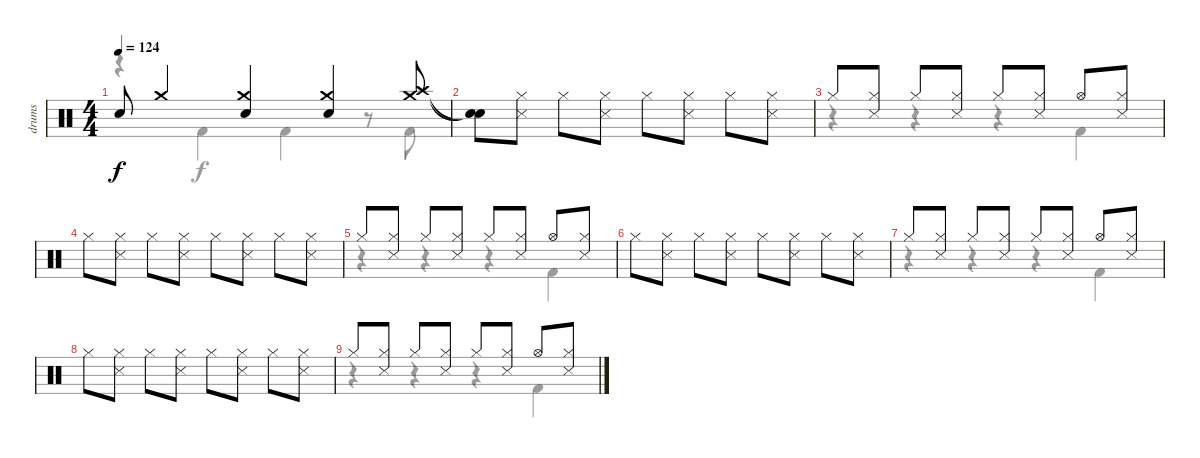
\track ("drums" "drums") {instrument percussion}
\staff {score}
\articulation defaults
\voice
\ts (4 4)
\tempo 124
\clef neutral
\ks c "Snare (hit)"{t}.8{dy f} "Crash medium (hit)".4
("Crash medium (hit)" "Snare (hit) 2").4 ("Crash medium (hit)" "Snare (hit) 2").4 ("Crash medium (hit)" "Crash high (hit)").8 |
("Snare (hit)"{t} "Snare (hit)"{t}).8 ("Hi-Hat (closed)" "Snare (side stick) 3").8 "Hi-Hat (closed)".8 ("Hi-Hat (closed)" "Snare (side stick) 3").8 "Hi-Hat (closed)".8 ("Hi-Hat (closed)" "Snare (side stick) 3").8 "Hi-Hat (closed)".8 ("Hi-Hat (closed)" "Snare (side stick) 3").8 |
"Hi-Hat (closed)".8 ("Hi-Hat (closed)" "Snare (side stick) 3").8 "Hi-Hat (closed)".8 ("Hi-Hat (closed)" "Snare (side stick) 3").8 "Hi-Hat (closed)".8 ("Hi-Hat (closed)" "Snare (side stick) 3").8 "Hi-Hat (open)".8 ("Hi-Hat (closed)" "Snare (side stick) 3").8 |
"Hi-Hat (closed)".8 ("Hi-Hat (closed)" "Snare (side stick) 3").8 "Hi-Hat (closed)".8 ("Hi-Hat (closed)" "Snare (side stick) 3").8 "Hi-Hat (closed)".8 ("Hi-Hat (closed)" "Snare (side stick) 3").8 "Hi-Hat (closed)".8 ("Hi-Hat (closed)" "Snare (side stick) 3").8 |
"Hi-Hat (closed)".8 ("Hi-Hat (closed)" "Snare (side stick) 3").8 "Hi-Hat (closed)".8 ("Hi-Hat (closed)" "Snare (side stick) 3").8 "Hi-Hat (closed)".8 ("Hi-Hat (closed)" "Snare (side stick) 3").8 "Hi-Hat (open)".8 ("Hi-Hat (closed)" "Snare (side stick) 3").8 |
"Hi-Hat (closed)".8 ("Hi-Hat (closed)" "Snare (side stick) 3").8 "Hi-Hat (closed)".8 ("Hi-Hat (closed)" "Snare (side stick) 3").8 "Hi-Hat (closed)".8 ("Hi-Hat (closed)" "Snare (side stick) 3").8 "Hi-Hat (closed)".8 ("Hi-Hat (closed)" "Snare (side stick) 3").8 |
"Hi-Hat (closed)".8{volume 3} ("Hi-Hat (closed)" "Snare (side stick) 3").8 "Hi-Hat (closed)".8 ("Hi-Hat (closed)" "Snare (side stick) 3").8 "Hi-Hat (closed)".8 ("Hi-Hat (closed)" "Snare (side stick) 3").8 "Hi-Hat (open)".8 ("Hi-Hat (closed)" "Snare (side stick) 3").8 |
"Hi-Hat (closed)".8 ("Hi-Hat (closed)" "Snare (side stick) 3").8 "Hi-Hat (closed)".8 ("Hi-Hat (closed)" "Snare (side stick) 3").8 "Hi-Hat (closed)".8 ("Hi-Hat (closed)" "Snare (side stick) 3").8 "Hi-Hat (closed)".8 ("Hi-Hat (closed)" "Snare (side stick) 3").8 |
"Hi-Hat (closed)".8 ("Hi-Hat (closed)" "Snare (side stick) 3").8 "Hi-Hat (closed)".8 ("Hi-Hat (closed)" "Snare (side stick) 3").8 "Hi-Hat (closed)".8 ("Hi-Hat (closed)" "Snare (side stick) 3").8 "Hi-Hat (open)".8 ("Hi-Hat (closed)" "Snare (side stick) 3").8
\voice
\clef neutral
\ottava regular
\simile none
\ks c
r.4{dy f} "Kick (hit) 2".4 "Kick (hit) 2".4 r.8 "Kick (hit) 2".8 |
|
r.4 r.4 r.4 "Kick (hit) 2".4 |
|
r.4 r.4 r.4 "Kick (hit) 2".4 |
|
r.4 r.4 r.4 "Kick (hit) 2".4 |
|
r.4 r.4 r.4 "Kick (hit) 2".4
